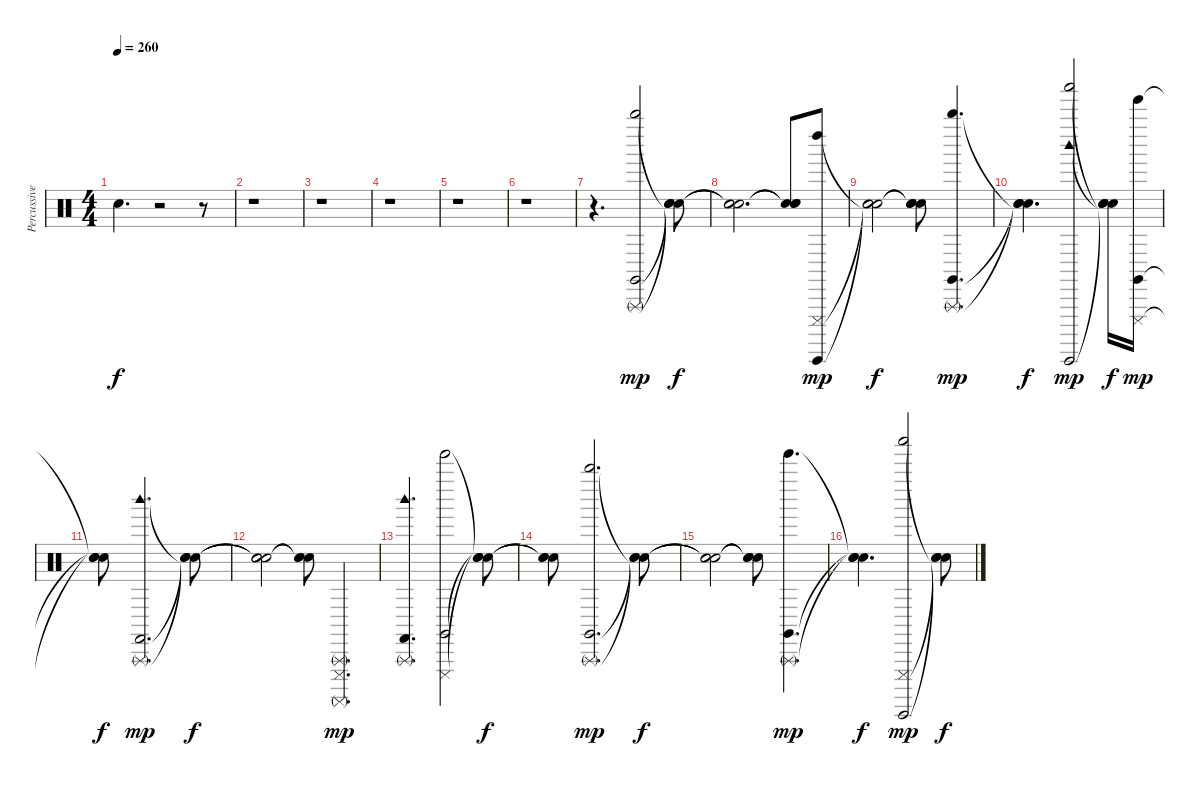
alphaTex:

\track ("Percussive Organ" "Percussive") {instrument percussion}
\staff {score}
\articulation defaults
\ts (4 4)
\tempo 260
\clef neutral
\ks c "Snare (hit)"{t}.4{d dy f}
r.2 r.8 |
r.1 |
r.1 |
r.1 |
r.1 |
r.1 |
r.4{d} ("Claves (hit)" "Whistle high (hit)" "Triangle (rnute)").2{dy mp} ("Snare (hit)"{t} "Snare (hit)"{t} "Snare (hit)"{t}).8{dy f} |
("Snare (hit)"{t} "Snare (hit)"{t} "Snare (hit)"{t}).2{d} ("Snare (hit)"{t} "Snare (hit)"{t} "Snare (hit)"{t}).8 ("Guiro (hit)" "Left Maraca (hit)" "Cuica (mute)").8{dy mp} |
("Snare (hit)"{t} "Snare (hit)"{t} "Snare (hit)"{t}).2{dy f} ("Snare (hit)"{t} "Snare (hit)"{t} "Snare (hit)"{t}).8 ("Claves (hit)" "Whistle high (hit)" "Triangle (rnute)").4{d dy mp} |
("Snare (hit)"{t} "Snare (hit)"{t} "Snare (hit)"{t}).4{d dy f} ("Woodblock high (hit)" "Guiro (hit)" "Shaker (hit)").2{dy mp} ("Snare (hit)"{t} "Snare (hit)"{t} "Snare (hit)"{t}).16{dy f} ("Claves (hit)" "Cuica (mute)" "Tinkle Bell (hit)").16{dy mp} |
("Snare (hit)"{t} "Snare (hit)"{t} "Snare (hit)"{t}).8{dy f} ("Woodblock high (hit)" "Castanets (hit)" "Triangle (rnute)").2{d dy mp} ("Snare (hit)"{t} "Snare (hit)"{t} "Snare (hit)"{t}).8{dy f} |
("Snare (hit)"{t} "Snare (hit)"{t} "Snare (hit)"{t}).2 ("Snare (hit)"{t} "Snare (hit)"{t} "Snare (hit)"{t}).8 ("Cuica (mute)" "Surdo (mute)" "Triangle (rnute)").4{d dy mp} |
("Woodblock high (hit)" "Castanets (hit)" "Triangle (rnute)").4{d} ("Tinkle Bell (hit)" "Cuica (mute)" "Claves (hit)").2 ("Snare (hit)"{t} "Snare (hit)"{t} "Snare (hit)"{t}).8{dy f} |
("Snare (hit)"{t} "Snare (hit)"{t} "Snare (hit)"{t}).8 ("Whistle high (hit)" "Claves (hit)" "Triangle (rnute)").2{d dy mp} ("Snare (hit)"{t} "Snare (hit)"{t} "Snare (hit)"{t}).8{dy f} |
("Snare (hit)"{t} "Snare (hit)"{t} "Snare (hit)"{t}).2 ("Snare (hit)"{t} "Snare (hit)"{t} "Snare (hit)"{t}).8 ("Tinkle Bell (hit)" "Claves (hit)" "Triangle (rnute)").4{d dy mp} |
("Snare (hit)"{t} "Snare (hit)"{t} "Snare (hit)"{t}).4{d dy f} ("Shaker (hit)" "Cuica (mute)" "Guiro (hit)").2{dy mp} ("Snare (hit)"{t} "Snare (hit)"{t} "Snare (hit)"{t}).8{dy f}
